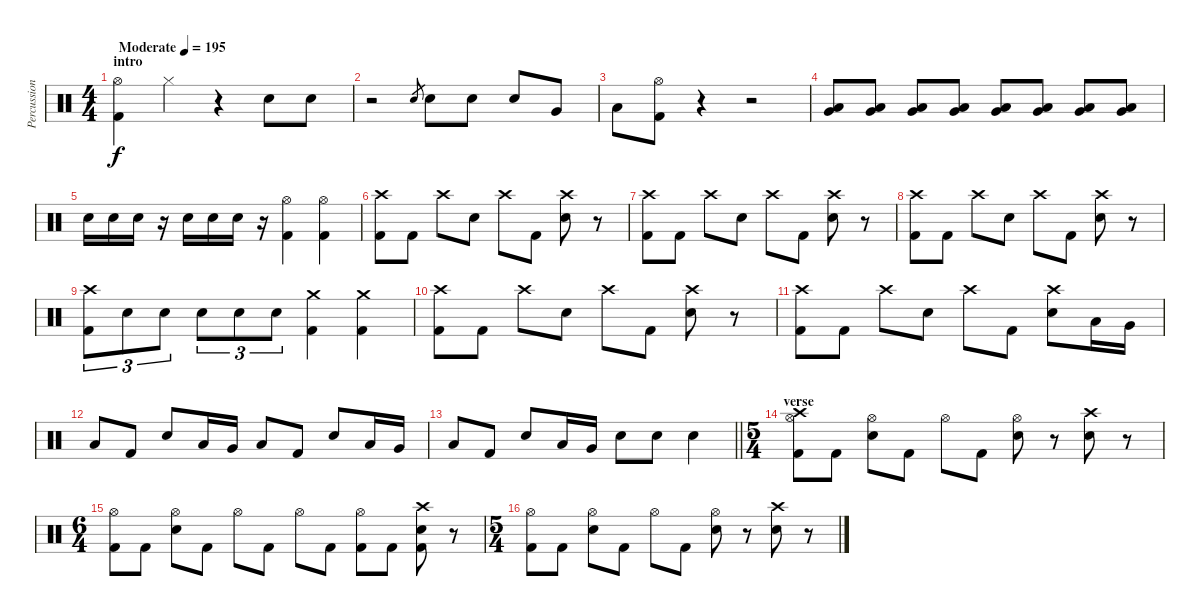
\track ("Percussion" "Percussion") {instrument percussion}
\staff {score}
\articulation defaults
\ts (4 4)
\section ("" "intro")
\tempo (195 "Moderate")
\clef neutral
\ks c
("Hi-Hat (open)" "Kick (hit) 2").4{dy f} "Hi-Hat (closed)".4 r.4 "Snare (hit) 2".8 "Snare (hit) 2".8 |
r.2 "Snare (hit) 2".8{gr} "Snare (hit) 2".8 "Snare (hit) 2".8 "Snare (hit) 2".8 "Very Low Tom (hit)".8 |
"Low Floor Tom (hit)".8 ("Hi-Hat (open)" "Kick (hit) 2").8 r.4 r.2 |
("Very Low Tom (hit)" "Low Floor Tom (hit)").8 ("Very Low Tom (hit)" "Low Floor Tom (hit)").8 ("Very Low Tom (hit)" "Low Floor Tom (hit)").8 ("Very Low Tom (hit)" "Low Floor Tom (hit)").8 ("Very Low Tom (hit)" "Low Floor Tom (hit)").8 ("Very Low Tom (hit)" "Low Floor Tom (hit)").8 ("Very Low Tom (hit)" "Low Floor Tom (hit)").8 ("Very Low Tom (hit)" "Low Floor Tom (hit)").8 |
"Snare (hit) 2".16 "Snare (hit) 2".16 "Snare (hit) 2".16 r.16 "Snare (hit) 2".16 "Snare (hit) 2".16 "Snare (hit) 2".16 r.16 ("Hi-Hat (open)" "Kick (hit) 2").4 ("Hi-Hat (open)" "Kick (hit) 2").4 |
("Crash high (hit)" "Kick (hit) 2").8 "Kick (hit) 2".8 "Crash high (hit)".8 "Snare (hit) 2".8 "Crash high (hit)".8 "Kick (hit) 2".8 ("Crash high (hit)" "Snare (hit) 2").8 r.8 |
("Crash high (hit)" "Kick (hit) 2").8 "Kick (hit) 2".8 "Crash high (hit)".8 "Snare (hit) 2".8 "Crash high (hit)".8 "Kick (hit) 2".8 ("Crash high (hit)" "Snare (hit) 2").8 r.8 |
("Crash high (hit)" "Kick (hit) 2").8 "Kick (hit) 2".8 "Crash high (hit)".8 "Snare (hit) 2".8 "Crash high (hit)".8 "Kick (hit) 2".8 ("Crash high (hit)" "Snare (hit) 2").8 r.8 |
("Crash high (hit)" "Kick (hit) 2").8{tu (3 2)} "Snare (hit) 2".8{tu (3 2)} "Snare (hit) 2".8{tu (3 2)} "Snare (hit) 2".8{tu (3 2)} "Snare (hit) 2".8{tu (3 2)} "Snare (hit) 2".8{tu (3 2)} ("Crash medium (hit)" "Kick (hit) 2").4 ("Crash medium (hit)" "Kick (hit) 2").4 |
("Crash high (hit)" "Kick (hit) 2").8 "Kick (hit) 2".8 "Crash high (hit)".8 "Snare (hit) 2".8 "Crash high (hit)".8 "Kick (hit) 2".8 ("Crash high (hit)" "Snare (hit) 2").8 r.8 |
("Crash high (hit)" "Kick (hit) 2").8 "Kick (hit) 2".8 "Crash high (hit)".8 "Snare (hit) 2".8 "Crash high (hit)".8 "Kick (hit) 2".8 ("Crash high (hit)" "Snare (hit) 2").8 "Low Tom (hit)".16 "Very Low Tom (hit)".16 |
"Low Floor Tom (hit)".8 "Kick (hit) 2".8 "Snare (hit) 2".8 "Low Tom (hit)".16 "Very Low Tom (hit)".16 "Low Floor Tom (hit)".8 "Kick (hit) 2".8 "Snare (hit) 2".8 "Low Tom (hit)".16 "Very Low Tom (hit)".16 |
\barLineRight lightlight "Low Floor Tom (hit)".8 "Kick (hit) 2".8 "Snare (hit) 2".8 "Low Tom (hit)".16 "Very Low Tom (hit)".16 "Snare (hit) 2".8 "Snare (hit) 2".8 "Snare (hit) 2".4
|
\ts (5 4)
\section ("" "verse")
("Crash high (hit)" "Hi-Hat (open)" "Kick (hit) 2").8 "Kick (hit) 2".8 ("Hi-Hat (open)" "Snare (hit) 2").8 "Kick (hit) 2".8 "Hi-Hat (open)".8 "Kick (hit) 2".8 ("Hi-Hat (open)" "Snare (hit) 2").8 r.8 ("Crash high (hit)" "Snare (hit) 2").8 r.8 |
\ts (6 4)
("Hi-Hat (open)" "Kick (hit) 2").8 "Kick (hit) 2".8 ("Hi-Hat (open)" "Snare (hit) 2").8 "Kick (hit) 2".8 "Hi-Hat (open)".8 "Kick (hit) 2".8 "Hi-Hat (open)".8 "Kick (hit) 2".8 ("Hi-Hat (open)" "Kick (hit) 2").8 "Kick (hit) 2".8 ("Crash high (hit)" "Snare (hit) 2" "Kick (hit) 2").8 r.8 |
\ts (5 4)
("Hi-Hat (open)" "Kick (hit) 2").8 "Kick (hit) 2".8 ("Hi-Hat (open)" "Snare (hit) 2").8 "Kick (hit) 2".8 "Hi-Hat (open)".8 "Kick (hit) 2".8 ("Hi-Hat (open)" "Snare (hit) 2").8 r.8 ("Crash high (hit)" "Snare (hit) 2").8 r.8
